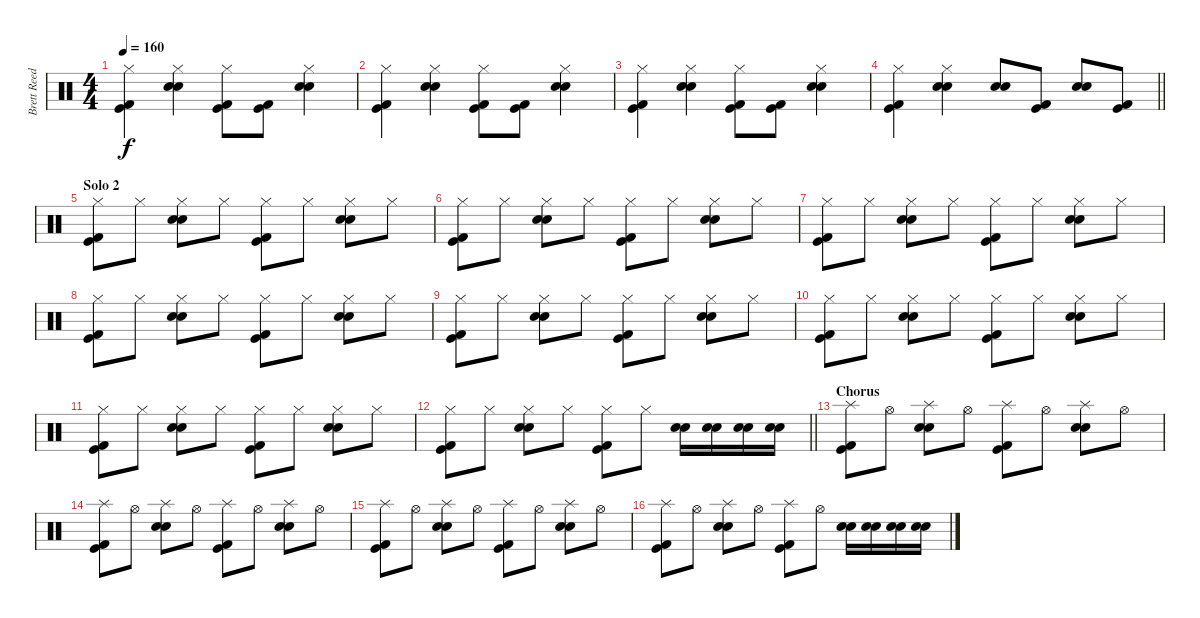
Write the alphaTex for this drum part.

\track ("Brett Reed" "Brett Reed") {instrument percussion}
\staff {score}
\articulation defaults
\ts (4 4)
\tempo 160
\clef neutral
\ks c
("Hi-Hat (closed)" "Kick (hit) 2" "Kick (hit)").4{dy f} ("Hi-Hat (closed)" "Electric Snare (hit)" "Snare (hit) 2").4 ("Hi-Hat (closed)" "Kick (hit) 2" "Kick (hit)").8 ("Kick (hit) 2" "Kick (hit)").8 ("Hi-Hat (closed)" "Electric Snare (hit)" "Snare (hit) 2").4 |
("Hi-Hat (closed)" "Kick (hit) 2" "Kick (hit)").4 ("Hi-Hat (closed)" "Electric Snare (hit)" "Snare (hit) 2").4 ("Hi-Hat (closed)" "Kick (hit) 2" "Kick (hit)").8 ("Kick (hit) 2" "Kick (hit)").8 ("Hi-Hat (closed)" "Electric Snare (hit)" "Snare (hit) 2").4 |
("Hi-Hat (closed)" "Kick (hit) 2" "Kick (hit)").4 ("Hi-Hat (closed)" "Electric Snare (hit)" "Snare (hit) 2").4 ("Hi-Hat (closed)" "Kick (hit) 2" "Kick (hit)").8 ("Kick (hit) 2" "Kick (hit)").8 ("Hi-Hat (closed)" "Electric Snare (hit)" "Snare (hit) 2").4 |
\barLineRight lightlight
("Hi-Hat (closed)" "Kick (hit) 2" "Kick (hit)").4 ("Hi-Hat (closed)" "Electric Snare (hit)" "Snare (hit) 2").4 ("Electric Snare (hit)" "Snare (hit) 2").8 ("Kick (hit) 2" "Kick (hit)").8 ("Electric Snare (hit)" "Snare (hit) 2").8 ("Kick (hit) 2" "Kick (hit)").8 |
\section ("" "Solo 2")
("Hi-Hat (closed)" "Kick (hit) 2" "Kick (hit)").8 "Hi-Hat (closed)".8 ("Hi-Hat (closed)" "Electric Snare (hit)" "Snare (hit) 2").8 "Hi-Hat (closed)".8 ("Hi-Hat (closed)" "Kick (hit) 2" "Kick (hit)").8 "Hi-Hat (closed)".8 ("Hi-Hat (closed)" "Electric Snare (hit)" "Snare (hit) 2").8 "Hi-Hat (closed)".8 |
("Hi-Hat (closed)" "Kick (hit) 2" "Kick (hit)").8 "Hi-Hat (closed)".8 ("Hi-Hat (closed)" "Electric Snare (hit)" "Snare (hit) 2").8 "Hi-Hat (closed)".8 ("Hi-Hat (closed)" "Kick (hit) 2" "Kick (hit)").8 "Hi-Hat (closed)".8 ("Hi-Hat (closed)" "Electric Snare (hit)" "Snare (hit) 2").8 "Hi-Hat (closed)".8 |
("Hi-Hat (closed)" "Kick (hit) 2" "Kick (hit)").8 "Hi-Hat (closed)".8 ("Hi-Hat (closed)" "Electric Snare (hit)" "Snare (hit) 2").8 "Hi-Hat (closed)".8 ("Hi-Hat (closed)" "Kick (hit) 2" "Kick (hit)").8 "Hi-Hat (closed)".8 ("Hi-Hat (closed)" "Electric Snare (hit)" "Snare (hit) 2").8 "Hi-Hat (closed)".8 |
("Hi-Hat (closed)" "Kick (hit) 2" "Kick (hit)").8 "Hi-Hat (closed)".8 ("Hi-Hat (closed)" "Electric Snare (hit)" "Snare (hit) 2").8 "Hi-Hat (closed)".8 ("Hi-Hat (closed)" "Kick (hit) 2" "Kick (hit)").8 "Hi-Hat (closed)".8 ("Hi-Hat (closed)" "Electric Snare (hit)" "Snare (hit) 2").8 "Hi-Hat (closed)".8 |
("Hi-Hat (closed)" "Kick (hit) 2" "Kick (hit)").8 "Hi-Hat (closed)".8 ("Hi-Hat (closed)" "Electric Snare (hit)" "Snare (hit) 2").8 "Hi-Hat (closed)".8 ("Hi-Hat (closed)" "Kick (hit) 2" "Kick (hit)").8 "Hi-Hat (closed)".8 ("Hi-Hat (closed)" "Electric Snare (hit)" "Snare (hit) 2").8 "Hi-Hat (closed)".8 |
("Hi-Hat (closed)" "Kick (hit) 2" "Kick (hit)").8 "Hi-Hat (closed)".8 ("Hi-Hat (closed)" "Electric Snare (hit)" "Snare (hit) 2").8 "Hi-Hat (closed)".8 ("Hi-Hat (closed)" "Kick (hit) 2" "Kick (hit)").8 "Hi-Hat (closed)".8 ("Hi-Hat (closed)" "Electric Snare (hit)" "Snare (hit) 2").8 "Hi-Hat (closed)".8 |
("Hi-Hat (closed)" "Kick (hit) 2" "Kick (hit)").8 "Hi-Hat (closed)".8 ("Hi-Hat (closed)" "Electric Snare (hit)" "Snare (hit) 2").8 "Hi-Hat (closed)".8 ("Hi-Hat (closed)" "Kick (hit) 2" "Kick (hit)").8 "Hi-Hat (closed)".8 ("Hi-Hat (closed)" "Electric Snare (hit)" "Snare (hit) 2").8 "Hi-Hat (closed)".8 |
\barLineRight lightlight
("Hi-Hat (closed)" "Kick (hit) 2" "Kick (hit)").8 "Hi-Hat (closed)".8 ("Hi-Hat (closed)" "Electric Snare (hit)" "Snare (hit) 2").8 "Hi-Hat (closed)".8 ("Hi-Hat (closed)" "Kick (hit) 2" "Kick (hit)").8 "Hi-Hat (closed)".8 ("Electric Snare (hit)" "Snare (hit) 2").16 ("Electric Snare (hit)" "Snare (hit) 2").16 ("Electric Snare (hit)" "Snare (hit) 2").16 ("Electric Snare (hit)" "Snare (hit) 2").16 |
\section ("" "Chorus")
("Splash (hit)" "Kick (hit) 2" "Kick (hit)").8 "Hi-Hat (open)".8 ("Splash (hit)" "Electric Snare (hit)" "Snare (hit) 2").8 "Hi-Hat (open)".8 ("Splash (hit)" "Kick (hit) 2" "Kick (hit)").8 "Hi-Hat (open)".8 ("Splash (hit)" "Electric Snare (hit)" "Snare (hit) 2").8 "Hi-Hat (open)".8 |
("Splash (hit)" "Kick (hit) 2" "Kick (hit)").8 "Hi-Hat (open)".8 ("Splash (hit)" "Electric Snare (hit)" "Snare (hit) 2").8 "Hi-Hat (open)".8 ("Splash (hit)" "Kick (hit) 2" "Kick (hit)").8 "Hi-Hat (open)".8 ("Splash (hit)" "Electric Snare (hit)" "Snare (hit) 2").8 "Hi-Hat (open)".8 |
("Splash (hit)" "Kick (hit) 2" "Kick (hit)").8 "Hi-Hat (open)".8 ("Splash (hit)" "Electric Snare (hit)" "Snare (hit) 2").8 "Hi-Hat (open)".8 ("Splash (hit)" "Kick (hit) 2" "Kick (hit)").8 "Hi-Hat (open)".8 ("Splash (hit)" "Electric Snare (hit)" "Snare (hit) 2").8 "Hi-Hat (open)".8 |
("Splash (hit)" "Kick (hit) 2" "Kick (hit)").8 "Hi-Hat (open)".8 ("Splash (hit)" "Electric Snare (hit)" "Snare (hit) 2").8 "Hi-Hat (open)".8 ("Splash (hit)" "Kick (hit) 2" "Kick (hit)").8 "Hi-Hat (open)".8 ("Electric Snare (hit)" "Snare (hit) 2").16 ("Electric Snare (hit)" "Snare (hit) 2").16 ("Electric Snare (hit)" "Snare (hit) 2").16 ("Electric Snare (hit)" "Snare (hit) 2").16
